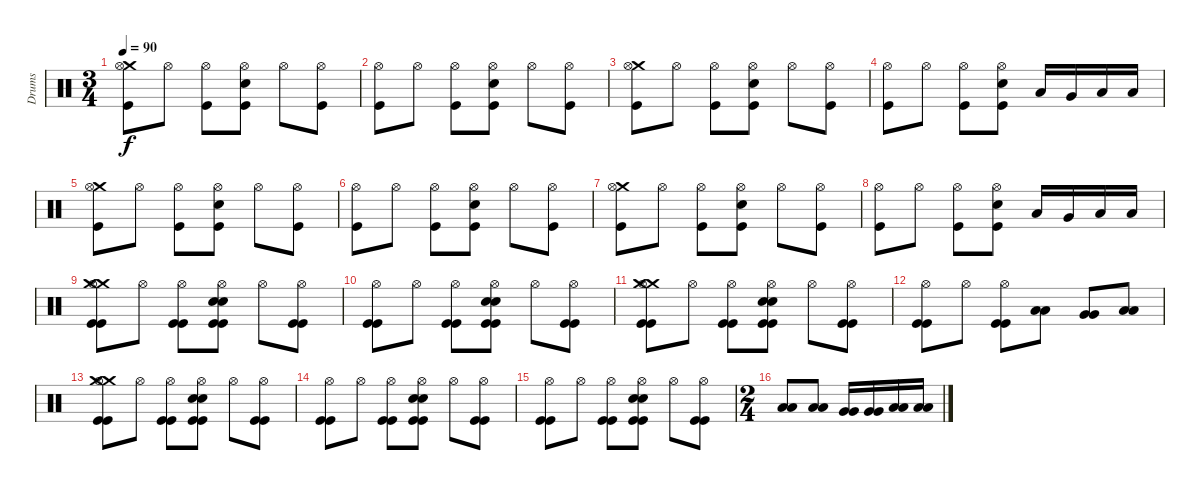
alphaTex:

\track ("Drums" "Drums") {instrument percussion}
\staff {score}
\articulation defaults
\ts (3 4)
\tempo 90
\clef neutral
\ks c
("Crash medium (hit)" "Hi-Hat (open)" "Kick (hit)").8{dy f} "Hi-Hat (open)".8 ("Hi-Hat (open)" "Kick (hit)").8 ("Hi-Hat (open)" "Electric Snare (hit)" "Kick (hit)").8 "Hi-Hat (open)".8 ("Hi-Hat (open)" "Kick (hit)").8 |
("Hi-Hat (open)" "Kick (hit)").8 "Hi-Hat (open)".8 ("Hi-Hat (open)" "Kick (hit)").8 ("Hi-Hat (open)" "Electric Snare (hit)" "Kick (hit)").8 "Hi-Hat (open)".8 ("Hi-Hat (open)" "Kick (hit)").8 |
("Crash medium (hit)" "Hi-Hat (open)" "Kick (hit)").8 "Hi-Hat (open)".8 ("Hi-Hat (open)" "Kick (hit)").8 ("Hi-Hat (open)" "Electric Snare (hit)" "Kick (hit)").8 "Hi-Hat (open)".8 ("Hi-Hat (open)" "Kick (hit)").8 |
("Hi-Hat (open)" "Kick (hit)").8 "Hi-Hat (open)".8 ("Hi-Hat (open)" "Kick (hit)").8 ("Hi-Hat (open)" "Electric Snare (hit)" "Kick (hit)").8 "Low Tom (hit)".16 "Very Low Tom (hit)".16 "Low Floor Tom (hit)".16 "Low Floor Tom (hit)".16 |
("Crash medium (hit)" "Hi-Hat (open)" "Kick (hit)").8 "Hi-Hat (open)".8 ("Hi-Hat (open)" "Kick (hit)").8 ("Hi-Hat (open)" "Electric Snare (hit)" "Kick (hit)").8 "Hi-Hat (open)".8 ("Hi-Hat (open)" "Kick (hit)").8 |
("Hi-Hat (open)" "Kick (hit)").8 "Hi-Hat (open)".8 ("Hi-Hat (open)" "Kick (hit)").8 ("Hi-Hat (open)" "Electric Snare (hit)" "Kick (hit)").8 "Hi-Hat (open)".8 ("Hi-Hat (open)" "Kick (hit)").8 |
("Crash medium (hit)" "Hi-Hat (open)" "Kick (hit)").8 "Hi-Hat (open)".8 ("Hi-Hat (open)" "Kick (hit)").8 ("Hi-Hat (open)" "Electric Snare (hit)" "Kick (hit)").8 "Hi-Hat (open)".8 ("Hi-Hat (open)" "Kick (hit)").8 |
("Hi-Hat (open)" "Kick (hit)").8 "Hi-Hat (open)".8 ("Hi-Hat (open)" "Kick (hit)").8 ("Hi-Hat (open)" "Electric Snare (hit)" "Kick (hit)").8 "Low Tom (hit)".16 "Very Low Tom (hit)".16 "Low Floor Tom (hit)".16 "Low Floor Tom (hit)".16 |
("Crash medium (hit)" "Hi-Hat (open)" "Crash medium (hit)" "Kick (hit)" "Kick (hit)").8 "Hi-Hat (open)".8 ("Hi-Hat (open)" "Kick (hit)" "Kick (hit)").8 ("Hi-Hat (open)" "Electric Snare (hit)" "Electric Snare (hit)" "Kick (hit)" "Kick (hit)").8 "Hi-Hat (open)".8 ("Hi-Hat (open)" "Kick (hit)" "Kick (hit)").8 |
("Hi-Hat (open)" "Kick (hit)" "Kick (hit)").8 "Hi-Hat (open)".8 ("Hi-Hat (open)" "Kick (hit)" "Kick (hit)").8 ("Hi-Hat (open)" "Electric Snare (hit)" "Electric Snare (hit)" "Kick (hit)" "Kick (hit)").8 "Hi-Hat (open)".8 ("Hi-Hat (open)" "Kick (hit)" "Kick (hit)").8 |
("Crash medium (hit)" "Hi-Hat (open)" "Crash medium (hit)" "Kick (hit)" "Kick (hit)").8 "Hi-Hat (open)".8 ("Hi-Hat (open)" "Kick (hit)" "Kick (hit)").8 ("Hi-Hat (open)" "Snare (hit)" "Electric Snare (hit)" "Kick (hit)" "Kick (hit)").8 "Hi-Hat (open)".8 ("Hi-Hat (open)" "Kick (hit)" "Kick (hit)").8 |
("Hi-Hat (open)" "Kick (hit)" "Kick (hit)").8 "Hi-Hat (open)".8 ("Hi-Hat (open)" "Kick (hit)" "Kick (hit)").8 ("Low Tom (hit)" "Low Tom (hit)").8 ("Very Low Tom (hit)" "Very Low Tom (hit)").8 ("Low Floor Tom (hit)" "Low Floor Tom (hit)").8 |
("Crash medium (hit)" "Hi-Hat (open)" "Crash medium (hit)" "Kick (hit)" "Kick (hit)").8 "Hi-Hat (open)".8 ("Hi-Hat (open)" "Kick (hit)" "Kick (hit)").8 ("Hi-Hat (open)" "Electric Snare (hit)" "Electric Snare (hit)" "Kick (hit)" "Kick (hit)").8 "Hi-Hat (open)".8 ("Hi-Hat (open)" "Kick (hit)" "Kick (hit)").8 |
("Hi-Hat (open)" "Kick (hit)" "Kick (hit)").8 "Hi-Hat (open)".8 ("Hi-Hat (open)" "Kick (hit)" "Kick (hit)").8 ("Hi-Hat (open)" "Electric Snare (hit)" "Electric Snare (hit)" "Kick (hit)" "Kick (hit)").8 "Hi-Hat (open)".8 ("Hi-Hat (open)" "Kick (hit)" "Kick (hit)").8 |
("Hi-Hat (open)" "Kick (hit)" "Kick (hit)").8 "Hi-Hat (open)".8 ("Hi-Hat (open)" "Kick (hit)" "Kick (hit)").8 ("Hi-Hat (open)" "Electric Snare (hit)" "Electric Snare (hit)" "Kick (hit)" "Kick (hit)").8 "Hi-Hat (open)".8 ("Hi-Hat (open)" "Kick (hit)" "Kick (hit)").8 |
\ts (2 4)
("Low Tom (hit)" "Low Tom (hit)").8 ("Low Tom (hit)" "Low Tom (hit)").8 ("Very Low Tom (hit)" "Very Low Tom (hit)").16 ("Very Low Tom (hit)" "Very Low Tom (hit)").16 ("Low Floor Tom (hit)" "Low Floor Tom (hit)").16 ("Low Floor Tom (hit)" "Low Floor Tom (hit)").16
